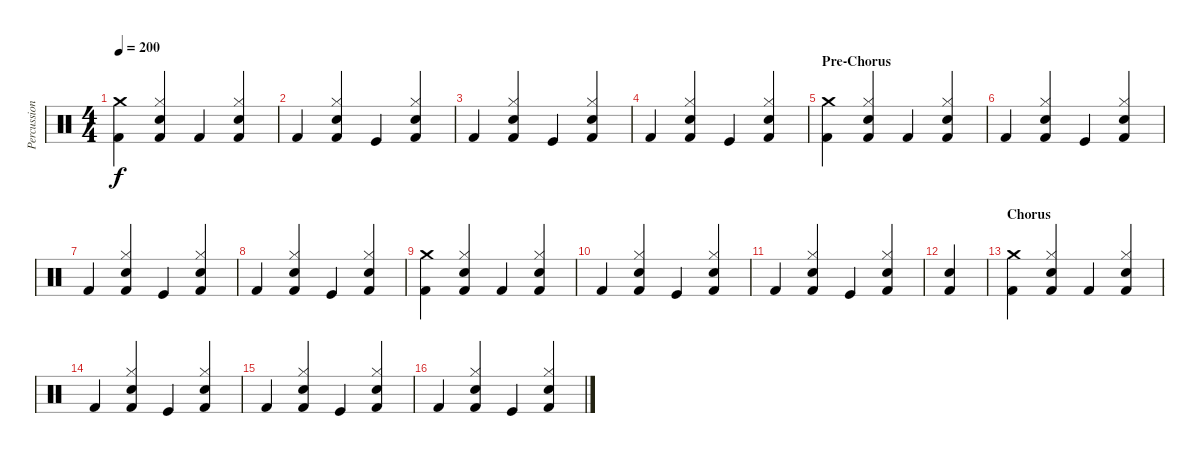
\track ("Percussion" "Percussion") {instrument percussion}
\staff {score}
\articulation defaults
\ts (4 4)
\tempo 200
\clef neutral
\ks c
("Crash medium (hit)" "Kick (hit) 2").4{dy f} ("Hi-Hat (closed)" "Snare (hit) 2" "Kick (hit) 2").4 "Kick (hit) 2".4 ("Hi-Hat (closed)" "Snare (hit) 2" "Kick (hit) 2").4 |
"Kick (hit) 2".4 ("Hi-Hat (closed)" "Snare (hit) 2" "Kick (hit) 2").4 "Kick (hit)".4 ("Hi-Hat (closed)" "Snare (hit) 2" "Kick (hit) 2").4 |
"Kick (hit) 2".4 ("Hi-Hat (closed)" "Snare (hit) 2" "Kick (hit) 2").4 "Kick (hit)".4 ("Hi-Hat (closed)" "Snare (hit) 2" "Kick (hit) 2").4 |
"Kick (hit) 2".4 ("Hi-Hat (closed)" "Snare (hit) 2" "Kick (hit) 2").4 "Kick (hit)".4 ("Hi-Hat (closed)" "Snare (hit) 2" "Kick (hit) 2").4 |
\section ("" "Pre-Chorus")
("Crash medium (hit)" "Kick (hit) 2").4 ("Hi-Hat (closed)" "Snare (hit) 2" "Kick (hit) 2").4 "Kick (hit) 2".4 ("Hi-Hat (closed)" "Snare (hit) 2" "Kick (hit) 2").4 |
"Kick (hit) 2".4 ("Hi-Hat (closed)" "Snare (hit) 2" "Kick (hit) 2").4 "Kick (hit)".4 ("Hi-Hat (closed)" "Snare (hit) 2" "Kick (hit) 2").4 |
"Kick (hit) 2".4 ("Hi-Hat (closed)" "Snare (hit) 2" "Kick (hit) 2").4 "Kick (hit)".4 ("Hi-Hat (closed)" "Snare (hit) 2" "Kick (hit) 2").4 |
"Kick (hit) 2".4 ("Hi-Hat (closed)" "Snare (hit) 2" "Kick (hit) 2").4 "Kick (hit)".4 ("Hi-Hat (closed)" "Snare (hit) 2" "Kick (hit) 2").4 |
("Crash medium (hit)" "Kick (hit) 2").4 ("Hi-Hat (closed)" "Snare (hit) 2" "Kick (hit) 2").4 "Kick (hit) 2".4 ("Hi-Hat (closed)" "Snare (hit) 2" "Kick (hit) 2").4 |
"Kick (hit) 2".4 ("Hi-Hat (closed)" "Snare (hit) 2" "Kick (hit) 2").4 "Kick (hit)".4 ("Hi-Hat (closed)" "Snare (hit) 2" "Kick (hit) 2").4 |
"Kick (hit) 2".4 ("Hi-Hat (closed)" "Snare (hit) 2" "Kick (hit) 2").4 "Kick (hit)".4 ("Hi-Hat (closed)" "Snare (hit) 2" "Kick (hit) 2").4 |
("Kick (hit) 2" "Snare (hit) 2").4 |
\section ("" "Chorus")
("Crash medium (hit)" "Kick (hit) 2").4 ("Hi-Hat (closed)" "Snare (hit) 2" "Kick (hit) 2").4 "Kick (hit) 2".4 ("Hi-Hat (closed)" "Snare (hit) 2" "Kick (hit) 2").4 |
"Kick (hit) 2".4 ("Hi-Hat (closed)" "Snare (hit) 2" "Kick (hit) 2").4 "Kick (hit)".4 ("Hi-Hat (closed)" "Snare (hit) 2" "Kick (hit) 2").4 |
"Kick (hit) 2".4 ("Hi-Hat (closed)" "Snare (hit) 2" "Kick (hit) 2").4 "Kick (hit)".4 ("Hi-Hat (closed)" "Snare (hit) 2" "Kick (hit) 2").4 |
"Kick (hit) 2".4 ("Hi-Hat (closed)" "Snare (hit) 2" "Kick (hit) 2").4 "Kick (hit)".4 ("Hi-Hat (closed)" "Snare (hit) 2" "Kick (hit) 2").4
